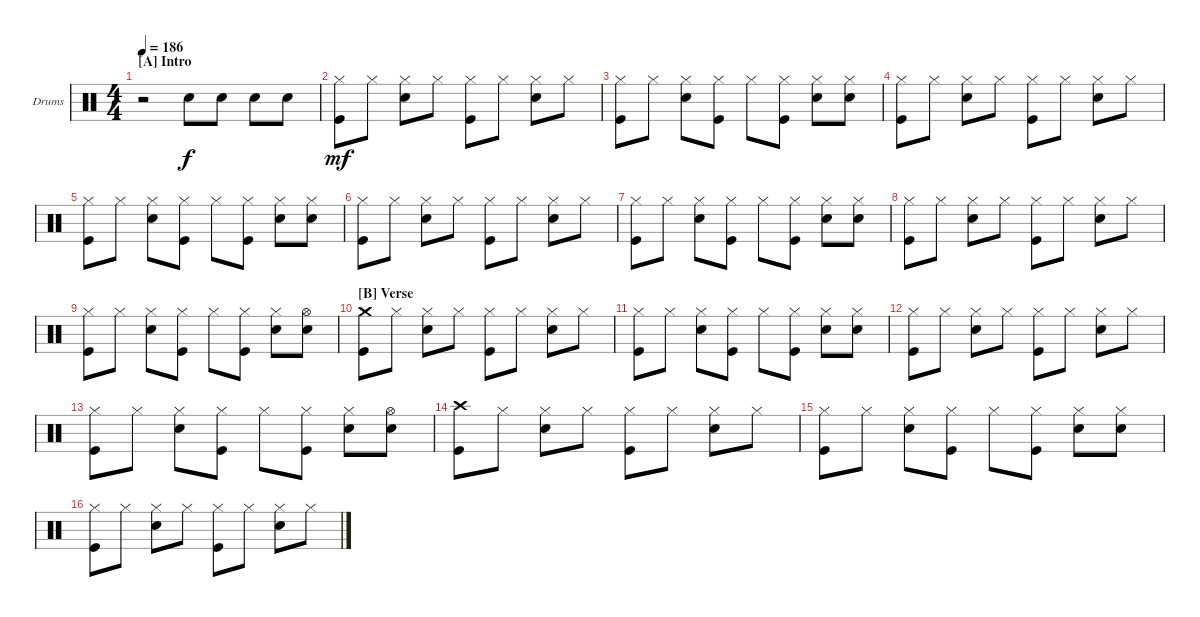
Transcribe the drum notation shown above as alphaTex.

\bracketExtendMode groupsimilarinstruments
\firstSystemTrackNameOrientation horizontal
\otherSystemsTrackNameOrientation horizontal
\track ("Drumkit" "Drums") {instrument percussion}
\staff {score}
\articulation defaults
\ts (4 4)
\beaming (8 2 2 2 2)
\section ("A" "Intro")
\tempo 186
\clef neutral
\ks c
r.2{dy f} "Snare (hit) 2".8 "Snare (hit) 2".8 "Snare (hit) 2".8 "Snare (hit) 2".8 |
("Hi-Hat (closed)" "Kick (hit)").8{dy mf} "Hi-Hat (closed)".8 ("Hi-Hat (closed)" "Snare (hit) 2").8 "Hi-Hat (closed)".8 ("Hi-Hat (closed)" "Kick (hit)").8 "Hi-Hat (closed)".8 ("Hi-Hat (closed)" "Snare (hit) 2").8 "Hi-Hat (closed)".8 |
("Hi-Hat (closed)" "Kick (hit)").8 "Hi-Hat (closed)".8 ("Hi-Hat (closed)" "Snare (hit) 2").8 ("Hi-Hat (closed)" "Kick (hit)").8 "Hi-Hat (closed)".8 ("Hi-Hat (closed)" "Kick (hit)").8 ("Hi-Hat (closed)" "Snare (hit) 2").8 ("Hi-Hat (closed)" "Snare (hit) 2").8 |
("Hi-Hat (closed)" "Kick (hit)").8 "Hi-Hat (closed)".8 ("Hi-Hat (closed)" "Snare (hit) 2").8 "Hi-Hat (closed)".8 ("Hi-Hat (closed)" "Kick (hit)").8 "Hi-Hat (closed)".8 ("Hi-Hat (closed)" "Snare (hit) 2").8 "Hi-Hat (closed)".8 |
("Hi-Hat (closed)" "Kick (hit)").8 "Hi-Hat (closed)".8 ("Hi-Hat (closed)" "Snare (hit) 2").8 ("Hi-Hat (closed)" "Kick (hit)").8 "Hi-Hat (closed)".8 ("Hi-Hat (closed)" "Kick (hit)").8 ("Hi-Hat (closed)" "Snare (hit) 2").8 ("Hi-Hat (closed)" "Snare (hit) 2").8 |
("Hi-Hat (closed)" "Kick (hit)").8 "Hi-Hat (closed)".8 ("Hi-Hat (closed)" "Snare (hit) 2").8 "Hi-Hat (closed)".8 ("Hi-Hat (closed)" "Kick (hit)").8 "Hi-Hat (closed)".8 ("Hi-Hat (closed)" "Snare (hit) 2").8 "Hi-Hat (closed)".8 |
("Hi-Hat (closed)" "Kick (hit)").8 "Hi-Hat (closed)".8 ("Hi-Hat (closed)" "Snare (hit) 2").8 ("Hi-Hat (closed)" "Kick (hit)").8 "Hi-Hat (closed)".8 ("Hi-Hat (closed)" "Kick (hit)").8 ("Hi-Hat (closed)" "Snare (hit) 2").8 ("Hi-Hat (closed)" "Snare (hit) 2").8 |
("Hi-Hat (closed)" "Kick (hit)").8 "Hi-Hat (closed)".8 ("Hi-Hat (closed)" "Snare (hit) 2").8 "Hi-Hat (closed)".8 ("Hi-Hat (closed)" "Kick (hit)").8 "Hi-Hat (closed)".8 ("Hi-Hat (closed)" "Snare (hit) 2").8 "Hi-Hat (closed)".8 |
("Hi-Hat (closed)" "Kick (hit)").8 "Hi-Hat (closed)".8 ("Hi-Hat (closed)" "Snare (hit) 2").8 ("Hi-Hat (closed)" "Kick (hit)").8 "Hi-Hat (closed)".8 ("Hi-Hat (closed)" "Kick (hit)").8 ("Hi-Hat (closed)" "Snare (hit) 2").8 ("Hi-Hat (open)" "Snare (hit) 2").8 |
\section ("B" "Verse")
("Crash medium (hit)" "Kick (hit)").8 "Hi-Hat (closed)".8 ("Hi-Hat (closed)" "Snare (hit) 2").8 "Hi-Hat (closed)".8 ("Hi-Hat (closed)" "Kick (hit)").8 "Hi-Hat (closed)".8 ("Hi-Hat (closed)" "Snare (hit) 2").8 "Hi-Hat (closed)".8 |
("Hi-Hat (closed)" "Kick (hit)").8 "Hi-Hat (closed)".8 ("Hi-Hat (closed)" "Snare (hit) 2").8 ("Hi-Hat (closed)" "Kick (hit)").8 "Hi-Hat (closed)".8 ("Hi-Hat (closed)" "Kick (hit)").8 ("Hi-Hat (closed)" "Snare (hit) 2").8 ("Hi-Hat (closed)" "Snare (hit) 2").8 |
("Hi-Hat (closed)" "Kick (hit)").8 "Hi-Hat (closed)".8 ("Hi-Hat (closed)" "Snare (hit) 2").8 "Hi-Hat (closed)".8 ("Hi-Hat (closed)" "Kick (hit)").8 "Hi-Hat (closed)".8 ("Hi-Hat (closed)" "Snare (hit) 2").8 "Hi-Hat (closed)".8 |
("Hi-Hat (closed)" "Kick (hit)").8 "Hi-Hat (closed)".8 ("Hi-Hat (closed)" "Snare (hit) 2").8 ("Hi-Hat (closed)" "Kick (hit)").8 "Hi-Hat (closed)".8 ("Hi-Hat (closed)" "Kick (hit)").8 ("Hi-Hat (closed)" "Snare (hit) 2").8 ("Hi-Hat (open)" "Snare (hit) 2").8 |
("Crash high (hit)" "Kick (hit)").8 "Hi-Hat (closed)".8 ("Hi-Hat (closed)" "Snare (hit) 2").8 "Hi-Hat (closed)".8 ("Hi-Hat (closed)" "Kick (hit)").8 "Hi-Hat (closed)".8 ("Hi-Hat (closed)" "Snare (hit) 2").8 "Hi-Hat (closed)".8 |
("Hi-Hat (closed)" "Kick (hit)").8 "Hi-Hat (closed)".8 ("Hi-Hat (closed)" "Snare (hit) 2").8 ("Hi-Hat (closed)" "Kick (hit)").8 "Hi-Hat (closed)".8 ("Hi-Hat (closed)" "Kick (hit)").8 ("Hi-Hat (closed)" "Snare (hit) 2").8 ("Hi-Hat (closed)" "Snare (hit) 2").8 |
("Hi-Hat (closed)" "Kick (hit)").8 "Hi-Hat (closed)".8 ("Hi-Hat (closed)" "Snare (hit) 2").8 "Hi-Hat (closed)".8 ("Hi-Hat (closed)" "Kick (hit)").8 "Hi-Hat (closed)".8 ("Hi-Hat (closed)" "Snare (hit) 2").8 "Hi-Hat (closed)".8
